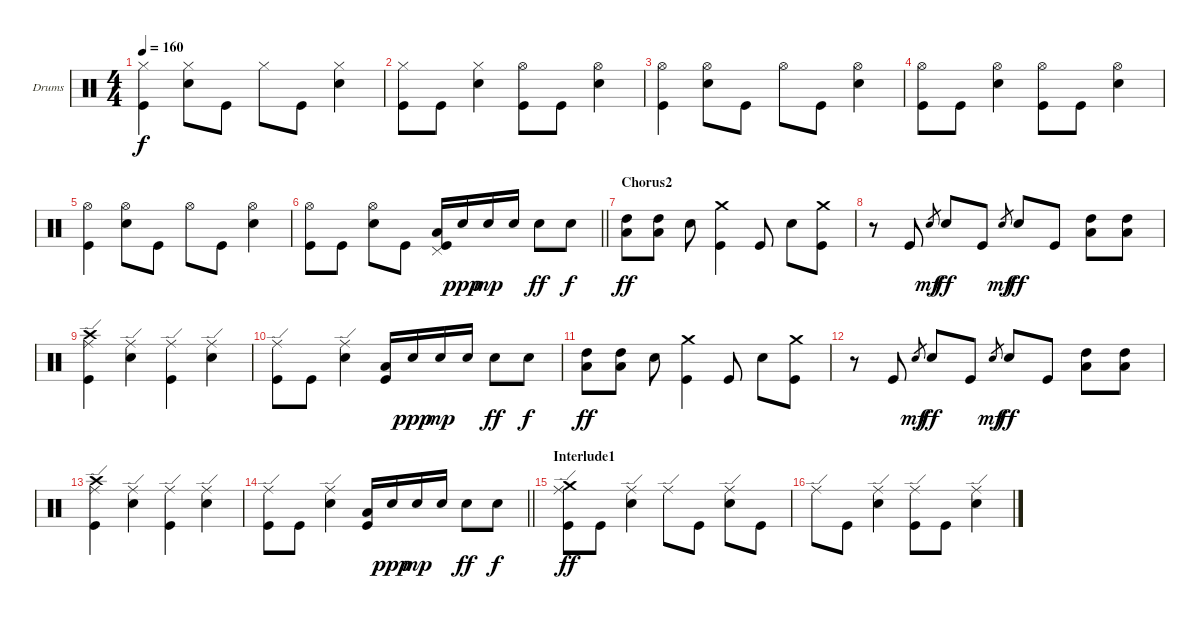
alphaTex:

\bracketExtendMode groupsimilarinstruments
\firstSystemTrackNameOrientation horizontal
\otherSystemsTrackNameOrientation horizontal
\track ("Jean-Paul Gaster" "Drums") {instrument percussion}
\staff {score}
\articulation defaults
\ts (4 4)
\tempo 160
\clef neutral
\ks c
("Hi-Hat (closed)" "Kick (hit)").4{dy f} ("Hi-Hat (closed)" "Snare (hit) 2").8 "Kick (hit)".8 "Hi-Hat (closed)".8 "Kick (hit)".8 ("Hi-Hat (closed)" "Snare (hit) 2").4 |
("Hi-Hat (closed)" "Kick (hit)").8 "Kick (hit)".8 ("Hi-Hat (closed)" "Snare (hit) 2").4 ("Hi-Hat (open)" "Kick (hit)").8 "Kick (hit)".8 ("Hi-Hat (open)" "Snare (hit) 2").4 |
("Hi-Hat (open)" "Kick (hit)").4 ("Hi-Hat (open)" "Snare (hit) 2").8 "Kick (hit)".8 "Hi-Hat (open)".8 "Kick (hit)".8 ("Hi-Hat (open)" "Snare (hit) 2").4 |
("Hi-Hat (open)" "Kick (hit)").8 "Kick (hit)".8 ("Hi-Hat (open)" "Snare (hit) 2").4 ("Hi-Hat (open)" "Kick (hit)").8 "Kick (hit)".8 ("Hi-Hat (open)" "Snare (hit) 2").4 |
("Hi-Hat (open)" "Kick (hit)").4 ("Hi-Hat (open)" "Snare (hit) 2").8 "Kick (hit)".8 "Hi-Hat (open)".8 "Kick (hit)".8 ("Hi-Hat (open)" "Snare (hit) 2").4 |
\barLineRight lightlight
("Hi-Hat (open)" "Kick (hit)").8 "Kick (hit)".8 ("Hi-Hat (open)" "Snare (hit) 2").8 "Kick (hit)".8 ("Pedal Hi-Hat (hit)" "Low Tom (hit)" "Kick (hit)").16 "Snare (hit) 2".16{dy ppp} "Snare (hit) 2".16{dy mp} "Snare (hit) 2".16 "Snare (hit) 2".8{dy ff} "Snare (hit) 2".8{dy f} |
\section ("" "Chorus2")
("High Tom (hit)" "Low Tom (hit)").8{dy ff} ("High Tom (hit)" "Low Tom (hit)").8 "Snare (hit) 2".8 ("Crash medium (hit)" "Kick (hit)").4 "Kick (hit)".8 "Snare (hit) 2".8 ("Crash medium (hit)" "Kick (hit)").8 |
r.8 "Kick (hit)".8 "Snare (hit) 2".8{gr dy mf} "Snare (hit) 2".8{dy ff} "Kick (hit)".8 "Snare (hit) 2".8{gr dy mf} "Snare (hit) 2".8{dy ff} "Kick (hit)".8 ("High Tom (hit)" "Low Tom (hit)").8 ("High Tom (hit)" "Low Tom (hit)").8 |
("Ride (edge)" "Crash high (hit)" "Kick (hit)").4 ("Ride (edge)" "Snare (hit) 2").4 ("Ride (edge)" "Kick (hit)").4 ("Ride (edge)" "Snare (hit) 2").4 |
("Ride (edge)" "Kick (hit)").8 "Kick (hit)".8 ("Ride (edge)" "Snare (hit) 2").4 ("Low Tom (hit)" "Kick (hit)").16 "Snare (hit) 2".16{dy ppp} "Snare (hit) 2".16{dy mp} "Snare (hit) 2".16 "Snare (hit) 2".8{dy ff} "Snare (hit) 2".8{dy f} |
("High Tom (hit)" "Low Tom (hit)").8{dy ff} ("High Tom (hit)" "Low Tom (hit)").8 "Snare (hit) 2".8 ("Crash medium (hit)" "Kick (hit)").4 "Kick (hit)".8 "Snare (hit) 2".8 ("Crash medium (hit)" "Kick (hit)").8 |
r.8 "Kick (hit)".8 "Snare (hit) 2".8{gr dy mf} "Snare (hit) 2".8{dy ff} "Kick (hit)".8 "Snare (hit) 2".8{gr dy mf} "Snare (hit) 2".8{dy ff} "Kick (hit)".8 ("High Tom (hit)" "Low Tom (hit)").8 ("High Tom (hit)" "Low Tom (hit)").8 |
("Ride (edge)" "Crash high (hit)" "Kick (hit)").4 ("Ride (edge)" "Snare (hit) 2").4 ("Ride (edge)" "Kick (hit)").4 ("Ride (edge)" "Snare (hit) 2").4 |
\barLineRight lightlight
("Ride (edge)" "Kick (hit)").8 "Kick (hit)".8 ("Ride (edge)" "Snare (hit) 2").4 ("Low Tom (hit)" "Kick (hit)").16 "Snare (hit) 2".16{dy ppp} "Snare (hit) 2".16{dy mp} "Snare (hit) 2".16 "Snare (hit) 2".8{dy ff} "Snare (hit) 2".8{dy f} |
\section ("" "Interlude1")
("Ride (edge)" "Crash medium (hit)" "Kick (hit)").8{dy ff} "Kick (hit)".8 ("Ride (edge)" "Snare (hit) 2").4 "Ride (edge)".8 "Kick (hit)".8 ("Ride (edge)" "Snare (hit) 2").8 "Kick (hit)".8 |
"Ride (edge)".8 "Kick (hit)".8 ("Ride (edge)" "Snare (hit) 2").4 ("Ride (edge)" "Kick (hit)").8 "Kick (hit)".8 ("Ride (edge)" "Snare (hit) 2").4
